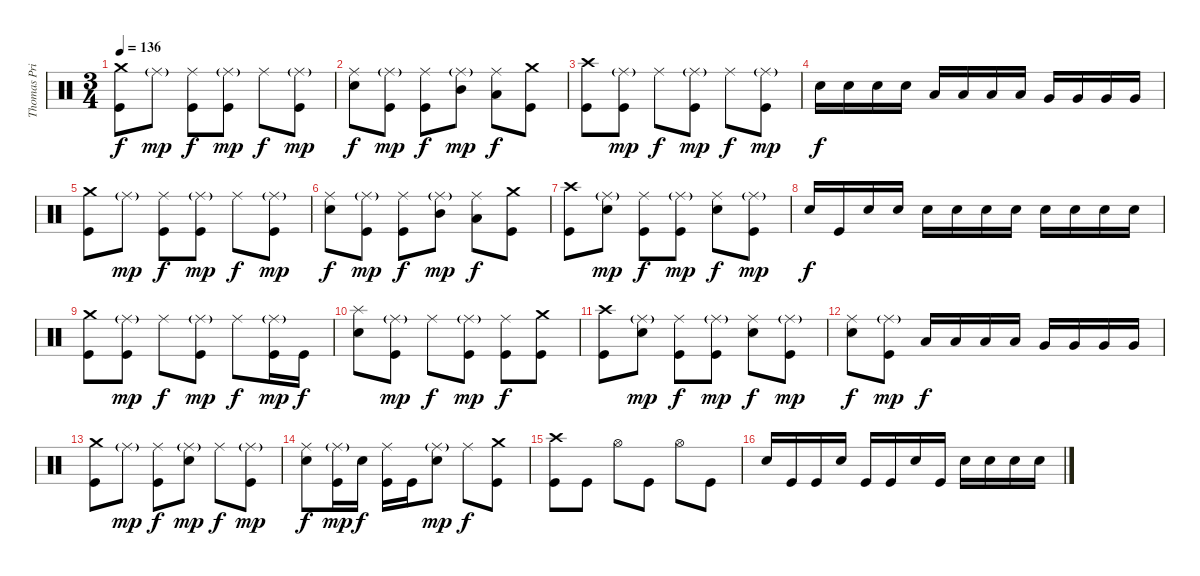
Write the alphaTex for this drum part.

\track ("Thomas Pridgen [Drum]" "Thomas Pri") {instrument percussion}
\staff {score}
\articulation defaults
\ts (3 4)
\tempo 136
\clef neutral
\ks c
("Crash medium (hit)" "Kick (hit)").8{dy f} "Ride (middle)"{g}.8{dy mp} ("Ride (middle)" "Kick (hit)").8{dy f} ("Ride (middle)"{g} "Kick (hit)").8{dy mp} "Ride (middle)".8{dy f} ("Ride (middle)"{g} "Kick (hit)").8{dy mp} |
("Ride (middle)" "Electric Snare (hit)").8{dy f} ("Ride (middle)"{g} "Kick (hit)").8{dy mp} ("Ride (middle)" "Kick (hit)").8{dy f} ("Ride (middle)"{g} "Mid Tom (hit)").8{dy mp} ("Ride (middle)" "Low Tom (hit)").8{dy f} ("Crash medium (hit)" "Kick (hit)").8 |
("Crash high (hit)" "Kick (hit)").8 ("Ride (middle)"{g} "Kick (hit)").8{dy mp} "Ride (middle)".8{dy f} ("Ride (middle)"{g} "Kick (hit)").8{dy mp} "Ride (middle)".8{dy f} ("Ride (middle)"{g} "Kick (hit)").8{dy mp} |
"Electric Snare (hit)".16{dy f} "Electric Snare (hit)".16 "Electric Snare (hit)".16 "Electric Snare (hit)".16 "Low Tom (hit)".16 "Low Tom (hit)".16 "Low Tom (hit)".16 "Low Tom (hit)".16 "Very Low Tom (hit)".16 "Very Low Tom (hit)".16 "Very Low Tom (hit)".16 "Very Low Tom (hit)".16 |
("Crash medium (hit)" "Kick (hit)").8 "Ride (middle)"{g}.8{dy mp} ("Ride (middle)" "Kick (hit)").8{dy f} ("Ride (middle)"{g} "Kick (hit)").8{dy mp} "Ride (middle)".8{dy f} ("Ride (middle)"{g} "Kick (hit)").8{dy mp} |
("Ride (middle)" "Electric Snare (hit)").8{dy f} ("Ride (middle)"{g} "Kick (hit)").8{dy mp} ("Ride (middle)" "Kick (hit)").8{dy f} ("Ride (middle)"{g} "Mid Tom (hit)").8{dy mp} ("Ride (middle)" "Low Tom (hit)").8{dy f} ("Crash medium (hit)" "Kick (hit)").8 |
("Crash high (hit)" "Kick (hit)").8 ("Ride (middle)"{g} "Electric Snare (hit)").8{dy mp} ("Ride (middle)" "Kick (hit)").8{dy f} ("Ride (middle)"{g} "Kick (hit)").8{dy mp} ("Ride (middle)" "Electric Snare (hit)").8{dy f} ("Ride (middle)"{g} "Kick (hit)").8{dy mp} |
"Electric Snare (hit)".16{dy f} "Kick (hit)".16 "Electric Snare (hit)".16 "Electric Snare (hit)".16 "Electric Snare (hit)".16 "Electric Snare (hit)".16 "Electric Snare (hit)".16 "Electric Snare (hit)".16 "Electric Snare (hit)".16 "Electric Snare (hit)".16 "Electric Snare (hit)".16 "Electric Snare (hit)".16 |
("Crash medium (hit)" "Kick (hit)").8 ("Ride (middle)"{g} "Kick (hit)").8{dy mp} "Ride (middle)".8{dy f} ("Ride (middle)"{g} "Kick (hit)").8{dy mp} "Ride (middle)".8{dy f} ("Ride (middle)"{g} "Kick (hit)").16{dy mp} "Kick (hit)".16{dy f} |
("Splash (hit)" "Electric Snare (hit)").8 ("Ride (middle)"{g} "Kick (hit)").8{dy mp} "Ride (middle)".8{dy f} ("Ride (middle)"{g} "Kick (hit)").8{dy mp} ("Ride (middle)" "Kick (hit)").8{dy f} ("Crash medium (hit)" "Kick (hit)").8 |
("Crash high (hit)" "Kick (hit)").8 ("Ride (middle)"{g} "Electric Snare (hit)").8{dy mp} ("Ride (middle)" "Kick (hit)").8{dy f} ("Ride (middle)"{g} "Kick (hit)").8{dy mp} ("Ride (middle)" "Electric Snare (hit)").8{dy f} ("Ride (middle)"{g} "Kick (hit)").8{dy mp} |
("Ride (middle)" "Electric Snare (hit)").8{dy f} ("Ride (middle)"{g} "Kick (hit)").8{dy mp} "Low Tom (hit)".16{dy f} "Low Tom (hit)".16 "Low Tom (hit)".16 "Low Tom (hit)".16 "Very Low Tom (hit)".16 "Very Low Tom (hit)".16 "Very Low Tom (hit)".16 "Very Low Tom (hit)".16 |
("Crash medium (hit)" "Kick (hit)").8 "Ride (middle)"{g}.8{dy mp} ("Ride (middle)" "Kick (hit)").8{dy f} ("Ride (middle)"{g} "Electric Snare (hit)").8{dy mp} "Ride (middle)".8{dy f} ("Ride (middle)"{g} "Kick (hit)").8{dy mp} |
("Ride (middle)" "Electric Snare (hit)").8{dy f} ("Ride (middle)"{g} "Kick (hit)").16{dy mp} "Electric Snare (hit)".16{dy f} ("Ride (middle)" "Kick (hit)").16 "Kick (hit)".16 ("Ride (middle)"{g} "Electric Snare (hit)").8{dy mp} "Ride (middle)".8{dy f} ("Crash medium (hit)" "Kick (hit)").8 |
("Crash high (hit)" "Kick (hit)").8 "Kick (hit)".8 "Hi-Hat (open)".8 "Kick (hit)".8 "Hi-Hat (open)".8 "Kick (hit)".8 |
"Electric Snare (hit)".16 "Kick (hit)".16 "Kick (hit)".16 "Electric Snare (hit)".16 "Kick (hit)".16 "Kick (hit)".16 "Electric Snare (hit)".16 "Kick (hit)".16 "Electric Snare (hit)".16 "Electric Snare (hit)".16 "Electric Snare (hit)".16 "Electric Snare (hit)".16
